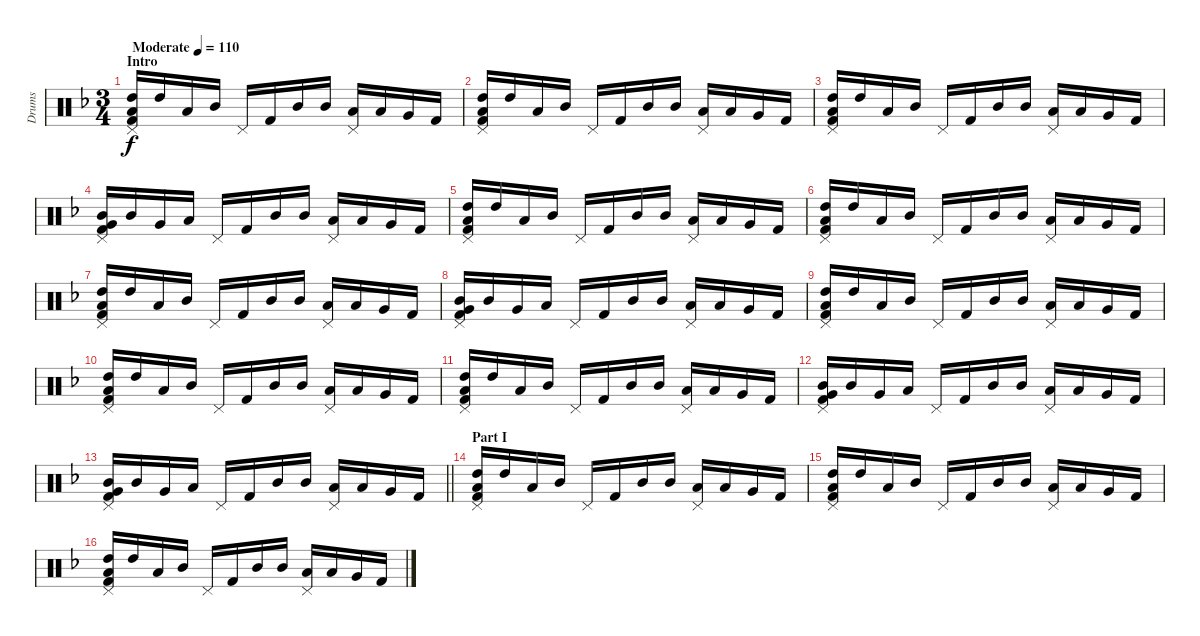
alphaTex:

\track ("Drums" "Drums") {instrument percussion}
\staff {score}
\articulation defaults
\ts (3 4)
\section ("" "Intro")
\tempo (110 "Moderate")
\clef neutral
\ks dminor
("High Tom (hit)" "Low Tom (hit)" "Kick (hit) 2" "Pedal Hi-Hat (hit)").16{dy f volume 12} "High Tom (hit)".16 "Low Tom (hit)".16 "Mid Tom (hit)".16 "Pedal Hi-Hat (hit)".16 "Kick (hit) 2".16 "Mid Tom (hit)".16 "Mid Tom (hit)".16 ("Low Tom (hit)" "Pedal Hi-Hat (hit)").16 "Low Tom (hit)".16 "Very Low Tom (hit)".16 "Kick (hit) 2".16 |
("High Tom (hit)" "Low Tom (hit)" "Kick (hit) 2" "Pedal Hi-Hat (hit)").16 "High Tom (hit)".16 "Low Tom (hit)".16 "Mid Tom (hit)".16 "Pedal Hi-Hat (hit)".16 "Kick (hit) 2".16 "Mid Tom (hit)".16 "Mid Tom (hit)".16 ("Low Tom (hit)" "Pedal Hi-Hat (hit)").16 "Low Tom (hit)".16 "Very Low Tom (hit)".16 "Kick (hit) 2".16 |
("High Tom (hit)" "Low Tom (hit)" "Kick (hit) 2" "Pedal Hi-Hat (hit)").16 "High Tom (hit)".16 "Low Tom (hit)".16 "Mid Tom (hit)".16 "Pedal Hi-Hat (hit)".16 "Kick (hit) 2".16 "Mid Tom (hit)".16 "Mid Tom (hit)".16 ("Low Tom (hit)" "Pedal Hi-Hat (hit)").16 "Low Tom (hit)".16 "Very Low Tom (hit)".16 "Kick (hit) 2".16 |
("Mid Tom (hit)" "Very Low Tom (hit)" "Kick (hit) 2" "Pedal Hi-Hat (hit)").16 "Mid Tom (hit)".16 "Very Low Tom (hit)".16 "Low Tom (hit)".16 "Pedal Hi-Hat (hit)".16 "Kick (hit) 2".16 "Mid Tom (hit)".16 "Mid Tom (hit)".16 ("Low Tom (hit)" "Pedal Hi-Hat (hit)").16 "Low Tom (hit)".16 "Very Low Tom (hit)".16 "Kick (hit) 2".16 |
("High Tom (hit)" "Low Tom (hit)" "Kick (hit) 2" "Pedal Hi-Hat (hit)").16{volume 12} "High Tom (hit)".16 "Low Tom (hit)".16 "Mid Tom (hit)".16 "Pedal Hi-Hat (hit)".16 "Kick (hit) 2".16 "Mid Tom (hit)".16 "Mid Tom (hit)".16 ("Low Tom (hit)" "Pedal Hi-Hat (hit)").16 "Low Tom (hit)".16 "Very Low Tom (hit)".16 "Kick (hit) 2".16 |
("High Tom (hit)" "Low Tom (hit)" "Kick (hit) 2" "Pedal Hi-Hat (hit)").16 "High Tom (hit)".16 "Low Tom (hit)".16 "Mid Tom (hit)".16 "Pedal Hi-Hat (hit)".16 "Kick (hit) 2".16 "Mid Tom (hit)".16 "Mid Tom (hit)".16 ("Low Tom (hit)" "Pedal Hi-Hat (hit)").16 "Low Tom (hit)".16 "Very Low Tom (hit)".16 "Kick (hit) 2".16 |
("High Tom (hit)" "Low Tom (hit)" "Kick (hit) 2" "Pedal Hi-Hat (hit)").16 "High Tom (hit)".16 "Low Tom (hit)".16 "Mid Tom (hit)".16 "Pedal Hi-Hat (hit)".16 "Kick (hit) 2".16 "Mid Tom (hit)".16 "Mid Tom (hit)".16 ("Low Tom (hit)" "Pedal Hi-Hat (hit)").16 "Low Tom (hit)".16 "Very Low Tom (hit)".16 "Kick (hit) 2".16 |
("Mid Tom (hit)" "Very Low Tom (hit)" "Kick (hit) 2" "Pedal Hi-Hat (hit)").16 "Mid Tom (hit)".16 "Very Low Tom (hit)".16 "Low Tom (hit)".16 "Pedal Hi-Hat (hit)".16 "Kick (hit) 2".16 "Mid Tom (hit)".16 "Mid Tom (hit)".16 ("Low Tom (hit)" "Pedal Hi-Hat (hit)").16 "Low Tom (hit)".16 "Very Low Tom (hit)".16 "Kick (hit) 2".16 |
("High Tom (hit)" "Low Tom (hit)" "Kick (hit) 2" "Pedal Hi-Hat (hit)").16 "High Tom (hit)".16 "Low Tom (hit)".16 "Mid Tom (hit)".16 "Pedal Hi-Hat (hit)".16 "Kick (hit) 2".16 "Mid Tom (hit)".16 "Mid Tom (hit)".16 ("Low Tom (hit)" "Pedal Hi-Hat (hit)").16 "Low Tom (hit)".16 "Very Low Tom (hit)".16 "Kick (hit) 2".16 |
("High Tom (hit)" "Low Tom (hit)" "Kick (hit) 2" "Pedal Hi-Hat (hit)").16 "High Tom (hit)".16 "Low Tom (hit)".16 "Mid Tom (hit)".16 "Pedal Hi-Hat (hit)".16 "Kick (hit) 2".16 "Mid Tom (hit)".16 "Mid Tom (hit)".16 ("Low Tom (hit)" "Pedal Hi-Hat (hit)").16 "Low Tom (hit)".16 "Very Low Tom (hit)".16 "Kick (hit) 2".16 |
("High Tom (hit)" "Low Tom (hit)" "Kick (hit) 2" "Pedal Hi-Hat (hit)").16 "High Tom (hit)".16 "Low Tom (hit)".16 "Mid Tom (hit)".16 "Pedal Hi-Hat (hit)".16 "Kick (hit) 2".16 "Mid Tom (hit)".16 "Mid Tom (hit)".16 ("Low Tom (hit)" "Pedal Hi-Hat (hit)").16 "Low Tom (hit)".16 "Very Low Tom (hit)".16 "Kick (hit) 2".16 |
("Mid Tom (hit)" "Very Low Tom (hit)" "Kick (hit) 2" "Pedal Hi-Hat (hit)").16 "Mid Tom (hit)".16 "Very Low Tom (hit)".16 "Low Tom (hit)".16 "Pedal Hi-Hat (hit)".16 "Kick (hit) 2".16 "Mid Tom (hit)".16 "Mid Tom (hit)".16 ("Low Tom (hit)" "Pedal Hi-Hat (hit)").16 "Low Tom (hit)".16 "Very Low Tom (hit)".16 "Kick (hit) 2".16 |
\barLineRight lightlight
("Mid Tom (hit)" "Very Low Tom (hit)" "Kick (hit) 2" "Pedal Hi-Hat (hit)").16 "Mid Tom (hit)".16 "Very Low Tom (hit)".16 "Low Tom (hit)".16 "Pedal Hi-Hat (hit)".16 "Kick (hit) 2".16 "Mid Tom (hit)".16 "Mid Tom (hit)".16 ("Low Tom (hit)" "Pedal Hi-Hat (hit)").16 "Low Tom (hit)".16 "Very Low Tom (hit)".16 "Kick (hit) 2".16 |
\section ("" "Part I")
("High Tom (hit)" "Low Tom (hit)" "Kick (hit) 2" "Pedal Hi-Hat (hit)").16{volume 12} "High Tom (hit)".16 "Low Tom (hit)".16 "Mid Tom (hit)".16 "Pedal Hi-Hat (hit)".16 "Kick (hit) 2".16 "Mid Tom (hit)".16 "Mid Tom (hit)".16 ("Low Tom (hit)" "Pedal Hi-Hat (hit)").16 "Low Tom (hit)".16 "Very Low Tom (hit)".16 "Kick (hit) 2".16 |
("High Tom (hit)" "Low Tom (hit)" "Kick (hit) 2" "Pedal Hi-Hat (hit)").16 "High Tom (hit)".16 "Low Tom (hit)".16 "Mid Tom (hit)".16 "Pedal Hi-Hat (hit)".16 "Kick (hit) 2".16 "Mid Tom (hit)".16 "Mid Tom (hit)".16 ("Low Tom (hit)" "Pedal Hi-Hat (hit)").16 "Low Tom (hit)".16 "Very Low Tom (hit)".16 "Kick (hit) 2".16 |
("High Tom (hit)" "Low Tom (hit)" "Kick (hit) 2" "Pedal Hi-Hat (hit)").16 "High Tom (hit)".16 "Low Tom (hit)".16 "Mid Tom (hit)".16 "Pedal Hi-Hat (hit)".16 "Kick (hit) 2".16 "Mid Tom (hit)".16 "Mid Tom (hit)".16 ("Low Tom (hit)" "Pedal Hi-Hat (hit)").16 "Low Tom (hit)".16 "Very Low Tom (hit)".16 "Kick (hit) 2".16
